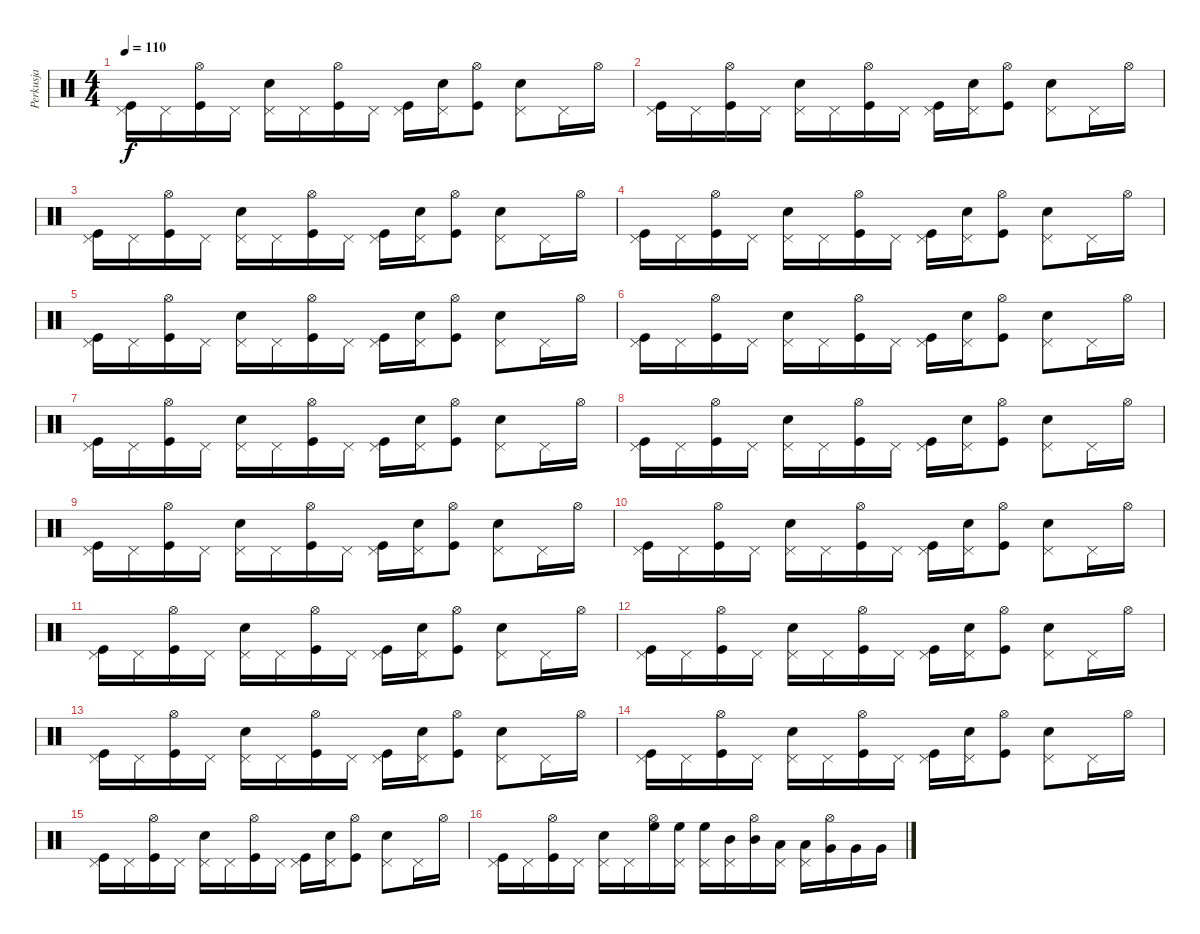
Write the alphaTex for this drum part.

\track ("Perkusja" "Perkusja") {instrument percussion}
\staff {score}
\articulation defaults
\ts (4 4)
\tempo 110
\clef neutral
\ks c
("Kick (hit)" "Pedal Hi-Hat (hit)").16{dy f} "Pedal Hi-Hat (hit)".16 ("Kick (hit)" "Hi-Hat (open)").16 "Pedal Hi-Hat (hit)".16 ("Snare (hit) 2" "Pedal Hi-Hat (hit)").16 "Pedal Hi-Hat (hit)".16 ("Kick (hit)" "Hi-Hat (open)").16 "Pedal Hi-Hat (hit)".16 ("Kick (hit)" "Pedal Hi-Hat (hit)").16 ("Snare (hit) 2" "Pedal Hi-Hat (hit)").16 ("Kick (hit)" "Hi-Hat (open)").8 ("Snare (hit) 2" "Pedal Hi-Hat (hit)").8 "Pedal Hi-Hat (hit)".16 "Hi-Hat (open)".16 |
("Kick (hit)" "Pedal Hi-Hat (hit)").16 "Pedal Hi-Hat (hit)".16 ("Kick (hit)" "Hi-Hat (open)").16 "Pedal Hi-Hat (hit)".16 ("Snare (hit) 2" "Pedal Hi-Hat (hit)").16 "Pedal Hi-Hat (hit)".16 ("Kick (hit)" "Hi-Hat (open)").16 "Pedal Hi-Hat (hit)".16 ("Kick (hit)" "Pedal Hi-Hat (hit)").16 ("Snare (hit) 2" "Pedal Hi-Hat (hit)").16 ("Kick (hit)" "Hi-Hat (open)").8 ("Snare (hit) 2" "Pedal Hi-Hat (hit)").8 "Pedal Hi-Hat (hit)".16 "Hi-Hat (open)".16 |
("Kick (hit)" "Pedal Hi-Hat (hit)").16 "Pedal Hi-Hat (hit)".16 ("Kick (hit)" "Hi-Hat (open)").16 "Pedal Hi-Hat (hit)".16 ("Snare (hit) 2" "Pedal Hi-Hat (hit)").16 "Pedal Hi-Hat (hit)".16 ("Kick (hit)" "Hi-Hat (open)").16 "Pedal Hi-Hat (hit)".16 ("Kick (hit)" "Pedal Hi-Hat (hit)").16 ("Snare (hit) 2" "Pedal Hi-Hat (hit)").16 ("Kick (hit)" "Hi-Hat (open)").8 ("Snare (hit) 2" "Pedal Hi-Hat (hit)").8 "Pedal Hi-Hat (hit)".16 "Hi-Hat (open)".16 |
("Kick (hit)" "Pedal Hi-Hat (hit)").16 "Pedal Hi-Hat (hit)".16 ("Kick (hit)" "Hi-Hat (open)").16 "Pedal Hi-Hat (hit)".16 ("Snare (hit) 2" "Pedal Hi-Hat (hit)").16 "Pedal Hi-Hat (hit)".16 ("Kick (hit)" "Hi-Hat (open)").16 "Pedal Hi-Hat (hit)".16 ("Kick (hit)" "Pedal Hi-Hat (hit)").16 ("Snare (hit) 2" "Pedal Hi-Hat (hit)").16 ("Kick (hit)" "Hi-Hat (open)").8 ("Snare (hit) 2" "Pedal Hi-Hat (hit)").8 "Pedal Hi-Hat (hit)".16 "Hi-Hat (open)".16 |
("Kick (hit)" "Pedal Hi-Hat (hit)").16 "Pedal Hi-Hat (hit)".16 ("Kick (hit)" "Hi-Hat (open)").16 "Pedal Hi-Hat (hit)".16 ("Snare (hit) 2" "Pedal Hi-Hat (hit)").16 "Pedal Hi-Hat (hit)".16 ("Kick (hit)" "Hi-Hat (open)").16 "Pedal Hi-Hat (hit)".16 ("Kick (hit)" "Pedal Hi-Hat (hit)").16 ("Snare (hit) 2" "Pedal Hi-Hat (hit)").16 ("Kick (hit)" "Hi-Hat (open)").8 ("Snare (hit) 2" "Pedal Hi-Hat (hit)").8 "Pedal Hi-Hat (hit)".16 "Hi-Hat (open)".16 |
("Kick (hit)" "Pedal Hi-Hat (hit)").16 "Pedal Hi-Hat (hit)".16 ("Kick (hit)" "Hi-Hat (open)").16 "Pedal Hi-Hat (hit)".16 ("Snare (hit) 2" "Pedal Hi-Hat (hit)").16 "Pedal Hi-Hat (hit)".16 ("Kick (hit)" "Hi-Hat (open)").16 "Pedal Hi-Hat (hit)".16 ("Kick (hit)" "Pedal Hi-Hat (hit)").16 ("Snare (hit) 2" "Pedal Hi-Hat (hit)").16 ("Kick (hit)" "Hi-Hat (open)").8 ("Snare (hit) 2" "Pedal Hi-Hat (hit)").8 "Pedal Hi-Hat (hit)".16 "Hi-Hat (open)".16 |
("Kick (hit)" "Pedal Hi-Hat (hit)").16 "Pedal Hi-Hat (hit)".16 ("Kick (hit)" "Hi-Hat (open)").16 "Pedal Hi-Hat (hit)".16 ("Snare (hit) 2" "Pedal Hi-Hat (hit)").16 "Pedal Hi-Hat (hit)".16 ("Kick (hit)" "Hi-Hat (open)").16 "Pedal Hi-Hat (hit)".16 ("Kick (hit)" "Pedal Hi-Hat (hit)").16 ("Snare (hit) 2" "Pedal Hi-Hat (hit)").16 ("Kick (hit)" "Hi-Hat (open)").8 ("Snare (hit) 2" "Pedal Hi-Hat (hit)").8 "Pedal Hi-Hat (hit)".16 "Hi-Hat (open)".16 |
("Kick (hit)" "Pedal Hi-Hat (hit)").16 "Pedal Hi-Hat (hit)".16 ("Kick (hit)" "Hi-Hat (open)").16 "Pedal Hi-Hat (hit)".16 ("Snare (hit) 2" "Pedal Hi-Hat (hit)").16 "Pedal Hi-Hat (hit)".16 ("Kick (hit)" "Hi-Hat (open)").16 "Pedal Hi-Hat (hit)".16 ("Kick (hit)" "Pedal Hi-Hat (hit)").16 ("Snare (hit) 2" "Pedal Hi-Hat (hit)").16 ("Kick (hit)" "Hi-Hat (open)").8 ("Snare (hit) 2" "Pedal Hi-Hat (hit)").8 "Pedal Hi-Hat (hit)".16 "Hi-Hat (open)".16 |
("Kick (hit)" "Pedal Hi-Hat (hit)").16 "Pedal Hi-Hat (hit)".16 ("Kick (hit)" "Hi-Hat (open)").16 "Pedal Hi-Hat (hit)".16 ("Snare (hit) 2" "Pedal Hi-Hat (hit)").16 "Pedal Hi-Hat (hit)".16 ("Kick (hit)" "Hi-Hat (open)").16 "Pedal Hi-Hat (hit)".16 ("Kick (hit)" "Pedal Hi-Hat (hit)").16 ("Snare (hit) 2" "Pedal Hi-Hat (hit)").16 ("Kick (hit)" "Hi-Hat (open)").8 ("Snare (hit) 2" "Pedal Hi-Hat (hit)").8 "Pedal Hi-Hat (hit)".16 "Hi-Hat (open)".16 |
("Kick (hit)" "Pedal Hi-Hat (hit)").16 "Pedal Hi-Hat (hit)".16 ("Kick (hit)" "Hi-Hat (open)").16 "Pedal Hi-Hat (hit)".16 ("Snare (hit) 2" "Pedal Hi-Hat (hit)").16 "Pedal Hi-Hat (hit)".16 ("Kick (hit)" "Hi-Hat (open)").16 "Pedal Hi-Hat (hit)".16 ("Kick (hit)" "Pedal Hi-Hat (hit)").16 ("Snare (hit) 2" "Pedal Hi-Hat (hit)").16 ("Kick (hit)" "Hi-Hat (open)").8 ("Snare (hit) 2" "Pedal Hi-Hat (hit)").8 "Pedal Hi-Hat (hit)".16 "Hi-Hat (open)".16 |
("Kick (hit)" "Pedal Hi-Hat (hit)").16 "Pedal Hi-Hat (hit)".16 ("Kick (hit)" "Hi-Hat (open)").16 "Pedal Hi-Hat (hit)".16 ("Snare (hit) 2" "Pedal Hi-Hat (hit)").16 "Pedal Hi-Hat (hit)".16 ("Kick (hit)" "Hi-Hat (open)").16 "Pedal Hi-Hat (hit)".16 ("Kick (hit)" "Pedal Hi-Hat (hit)").16 ("Snare (hit) 2" "Pedal Hi-Hat (hit)").16 ("Kick (hit)" "Hi-Hat (open)").8 ("Snare (hit) 2" "Pedal Hi-Hat (hit)").8 "Pedal Hi-Hat (hit)".16 "Hi-Hat (open)".16 |
("Kick (hit)" "Pedal Hi-Hat (hit)").16 "Pedal Hi-Hat (hit)".16 ("Kick (hit)" "Hi-Hat (open)").16 "Pedal Hi-Hat (hit)".16 ("Snare (hit) 2" "Pedal Hi-Hat (hit)").16 "Pedal Hi-Hat (hit)".16 ("Kick (hit)" "Hi-Hat (open)").16 "Pedal Hi-Hat (hit)".16 ("Kick (hit)" "Pedal Hi-Hat (hit)").16 ("Snare (hit) 2" "Pedal Hi-Hat (hit)").16 ("Kick (hit)" "Hi-Hat (open)").8 ("Snare (hit) 2" "Pedal Hi-Hat (hit)").8 "Pedal Hi-Hat (hit)".16 "Hi-Hat (open)".16 |
("Kick (hit)" "Pedal Hi-Hat (hit)").16 "Pedal Hi-Hat (hit)".16 ("Kick (hit)" "Hi-Hat (open)").16 "Pedal Hi-Hat (hit)".16 ("Snare (hit) 2" "Pedal Hi-Hat (hit)").16 "Pedal Hi-Hat (hit)".16 ("Kick (hit)" "Hi-Hat (open)").16 "Pedal Hi-Hat (hit)".16 ("Kick (hit)" "Pedal Hi-Hat (hit)").16 ("Snare (hit) 2" "Pedal Hi-Hat (hit)").16 ("Kick (hit)" "Hi-Hat (open)").8 ("Snare (hit) 2" "Pedal Hi-Hat (hit)").8 "Pedal Hi-Hat (hit)".16 "Hi-Hat (open)".16 |
("Kick (hit)" "Pedal Hi-Hat (hit)").16 "Pedal Hi-Hat (hit)".16 ("Kick (hit)" "Hi-Hat (open)").16 "Pedal Hi-Hat (hit)".16 ("Snare (hit) 2" "Pedal Hi-Hat (hit)").16 "Pedal Hi-Hat (hit)".16 ("Kick (hit)" "Hi-Hat (open)").16 "Pedal Hi-Hat (hit)".16 ("Kick (hit)" "Pedal Hi-Hat (hit)").16 ("Snare (hit) 2" "Pedal Hi-Hat (hit)").16 ("Kick (hit)" "Hi-Hat (open)").8 ("Snare (hit) 2" "Pedal Hi-Hat (hit)").8 "Pedal Hi-Hat (hit)".16 "Hi-Hat (open)".16 |
("Kick (hit)" "Pedal Hi-Hat (hit)").16 "Pedal Hi-Hat (hit)".16 ("Kick (hit)" "Hi-Hat (open)").16 "Pedal Hi-Hat (hit)".16 ("Snare (hit) 2" "Pedal Hi-Hat (hit)").16 "Pedal Hi-Hat (hit)".16 ("Kick (hit)" "Hi-Hat (open)").16 "Pedal Hi-Hat (hit)".16 ("Kick (hit)" "Pedal Hi-Hat (hit)").16 ("Snare (hit) 2" "Pedal Hi-Hat (hit)").16 ("Kick (hit)" "Hi-Hat (open)").8 ("Snare (hit) 2" "Pedal Hi-Hat (hit)").8 "Pedal Hi-Hat (hit)".16 "Hi-Hat (open)".16 |
("Kick (hit)" "Pedal Hi-Hat (hit)").16 "Pedal Hi-Hat (hit)".16 ("Kick (hit)" "Hi-Hat (open)").16 "Pedal Hi-Hat (hit)".16 ("Snare (hit) 2" "Pedal Hi-Hat (hit)").16 "Pedal Hi-Hat (hit)".16 ("High Floor Tom (hit)" "Hi-Hat (open)").16 ("High Floor Tom (hit)" "Pedal Hi-Hat (hit)").16 ("High Floor Tom (hit)" "Pedal Hi-Hat (hit)").16 ("Mid Tom (hit)" "Pedal Hi-Hat (hit)").16 ("Mid Tom (hit)" "Hi-Hat (open)").16 ("Low Tom (hit)" "Pedal Hi-Hat (hit)").16 ("Low Tom (hit)" "Pedal Hi-Hat (hit)").16 ("Very Low Tom (hit)" "Hi-Hat (open)").16 "Very Low Tom (hit)".16 "Very Low Tom (hit)".16
